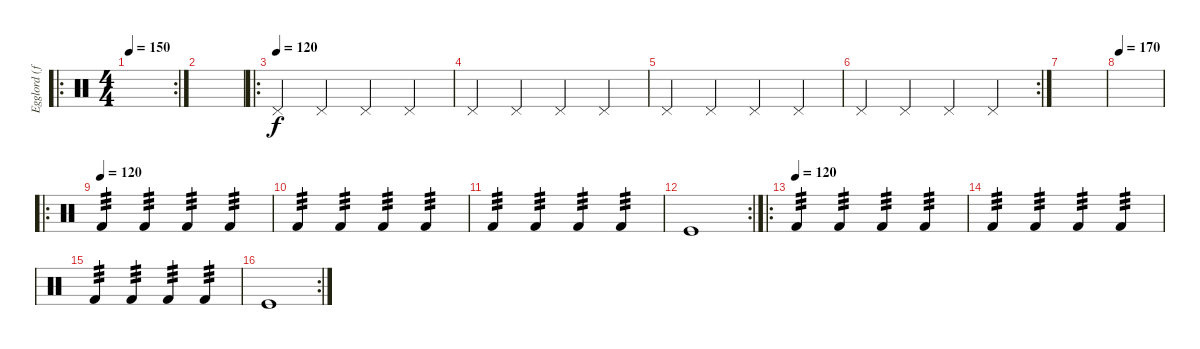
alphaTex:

\track ("Egglord (fills etc)" "Egglord (f") {instrument percussion}
\staff {score}
\articulation defaults
\ro
\rc 2
\ts (4 4)
\tempo 150
\clef neutral
\ks c
|
|
\ro
\tempo (120)
"Pedal Hi-Hat (hit)".4 "Pedal Hi-Hat (hit)".4 "Pedal Hi-Hat (hit)".4 "Pedal Hi-Hat (hit)".4 |
"Pedal Hi-Hat (hit)".4 "Pedal Hi-Hat (hit)".4 "Pedal Hi-Hat (hit)".4 "Pedal Hi-Hat (hit)".4 |
"Pedal Hi-Hat (hit)".4 "Pedal Hi-Hat (hit)".4 "Pedal Hi-Hat (hit)".4 "Pedal Hi-Hat (hit)".4 |
\rc 2 "Pedal Hi-Hat (hit)".4 "Pedal Hi-Hat (hit)".4 "Pedal Hi-Hat (hit)".4 "Pedal Hi-Hat (hit)".4
|
|
\tempo 170
|
\ro
\tempo (120)
"Kick (hit) 2".4{tp 3} "Kick (hit) 2".4{tp 3} "Kick (hit) 2".4{tp 3} "Kick (hit) 2".4{tp 3} |
"Kick (hit) 2".4{tp 3} "Kick (hit) 2".4{tp 3} "Kick (hit) 2".4{tp 3} "Kick (hit) 2".4{tp 3} |
"Kick (hit) 2".4{tp 3} "Kick (hit) 2".4{tp 3} "Kick (hit) 2".4{tp 3} "Kick (hit) 2".4{tp 3} |
\rc 2 "Kick (hit)".1
|
\ro
\tempo (120)
"Kick (hit) 2".4{tp 3} "Kick (hit) 2".4{tp 3} "Kick (hit) 2".4{tp 3} "Kick (hit) 2".4{tp 3} |
"Kick (hit) 2".4{tp 3} "Kick (hit) 2".4{tp 3} "Kick (hit) 2".4{tp 3} "Kick (hit) 2".4{tp 3} |
"Kick (hit) 2".4{tp 3} "Kick (hit) 2".4{tp 3} "Kick (hit) 2".4{tp 3} "Kick (hit) 2".4{tp 3} |
\rc 2 "Kick (hit)".1
